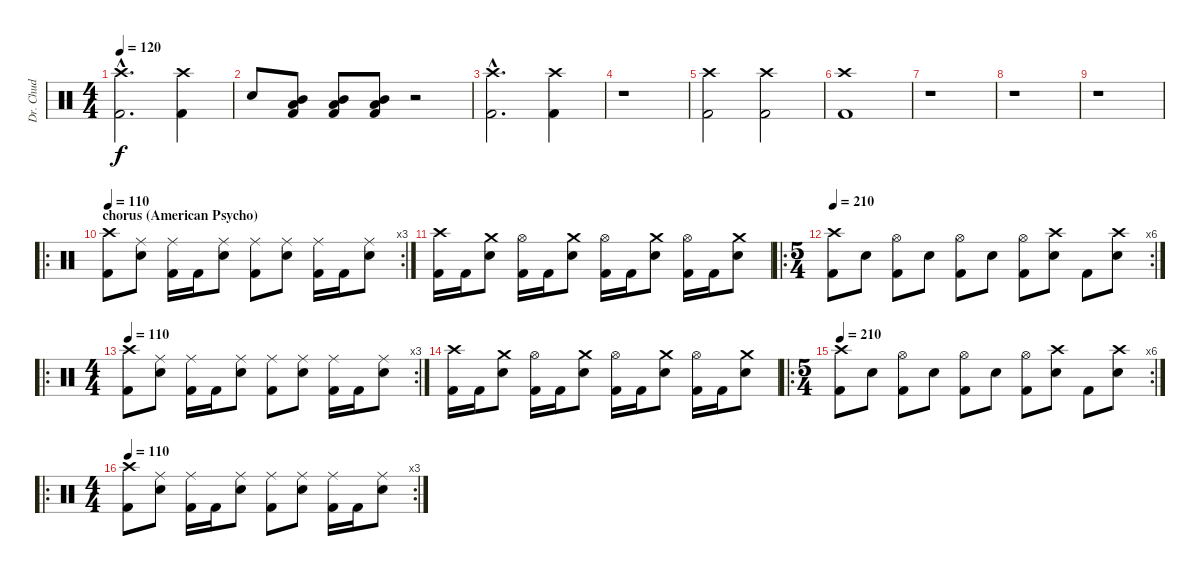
\track ("Dr. Chud" "Dr. Chud") {instrument percussion}
\staff {score}
\articulation defaults
\ts (4 4)
\tempo 120
\clef neutral
\ks c
("Crash high (hit)"{hac} "Kick (hit) 2"{hac}).2{d dy f} ("Crash high (hit)" "Kick (hit) 2").4 |
"Electric Snare (hit)".8 ("Mid Tom (hit)" "Low Tom (hit)" "Kick (hit) 2").8 ("Mid Tom (hit)" "Low Tom (hit)" "Kick (hit) 2").8 ("Mid Tom (hit)" "Low Tom (hit)" "Kick (hit) 2").8 r.2 |
("Crash high (hit)"{hac} "Kick (hit) 2"{hac}).2{d} ("Crash high (hit)" "Kick (hit) 2").4 |
r.1 |
("Crash high (hit)" "Kick (hit) 2").2 ("Crash high (hit)" "Kick (hit) 2").2 |
("Crash high (hit)" "Kick (hit) 2").1 |
r.1 |
r.1 |
r.1 |
\ro
\rc 3
\section ("" "chorus (American Psycho)")
\tempo 110
("Crash high (hit)" "Kick (hit) 2").8 ("Ride (middle)" "Electric Snare (hit)").8 ("Ride (middle)" "Kick (hit) 2").16 "Kick (hit) 2".16 ("Ride (middle)" "Electric Snare (hit)").8 ("Ride (middle)" "Kick (hit) 2").8 ("Ride (middle)" "Electric Snare (hit)").8 ("Ride (middle)" "Kick (hit) 2").16 "Kick (hit) 2".16 ("Ride (middle)" "Electric Snare (hit)").8 |
("Crash high (hit)" "Kick (hit) 2").16 "Kick (hit) 2".16 ("Crash medium (hit)" "Electric Snare (hit)").8 ("Hi-Hat (open)" "Kick (hit) 2").16 "Kick (hit) 2".16 ("Crash medium (hit)" "Electric Snare (hit)").8 ("Hi-Hat (open)" "Kick (hit) 2").16 "Kick (hit) 2".16 ("Crash medium (hit)" "Electric Snare (hit)").8 ("Hi-Hat (open)" "Kick (hit) 2").16 "Kick (hit) 2".16 ("Crash medium (hit)" "Electric Snare (hit)").8 |
\ro
\rc 6
\ts (5 4)
\tempo 210
("Crash high (hit)" "Kick (hit) 2").8 "Electric Snare (hit)".8 ("Hi-Hat (open)" "Kick (hit) 2").8 "Electric Snare (hit)".8 ("Hi-Hat (open)" "Kick (hit) 2").8 "Electric Snare (hit)".8 ("Hi-Hat (open)" "Kick (hit) 2").8 ("Crash high (hit)" "Electric Snare (hit)").8 "Kick (hit) 2".8 ("Crash high (hit)" "Electric Snare (hit)").8 |
\ro
\rc 3
\ts (4 4)
\tempo 110
("Crash high (hit)" "Kick (hit) 2").8 ("Ride (middle)" "Electric Snare (hit)").8 ("Ride (middle)" "Kick (hit) 2").16 "Kick (hit) 2".16 ("Ride (middle)" "Electric Snare (hit)").8 ("Ride (middle)" "Kick (hit) 2").8 ("Ride (middle)" "Electric Snare (hit)").8 ("Ride (middle)" "Kick (hit) 2").16 "Kick (hit) 2".16 ("Ride (middle)" "Electric Snare (hit)").8 |
("Crash high (hit)" "Kick (hit) 2").16 "Kick (hit) 2".16 ("Crash medium (hit)" "Electric Snare (hit)").8 ("Hi-Hat (open)" "Kick (hit) 2").16 "Kick (hit) 2".16 ("Crash medium (hit)" "Electric Snare (hit)").8 ("Hi-Hat (open)" "Kick (hit) 2").16 "Kick (hit) 2".16 ("Crash medium (hit)" "Electric Snare (hit)").8 ("Hi-Hat (open)" "Kick (hit) 2").16 "Kick (hit) 2".16 ("Crash medium (hit)" "Electric Snare (hit)").8 |
\ro
\rc 6
\ts (5 4)
\tempo 210
("Crash high (hit)" "Kick (hit) 2").8 "Electric Snare (hit)".8 ("Hi-Hat (open)" "Kick (hit) 2").8 "Electric Snare (hit)".8 ("Hi-Hat (open)" "Kick (hit) 2").8 "Electric Snare (hit)".8 ("Hi-Hat (open)" "Kick (hit) 2").8 ("Crash high (hit)" "Electric Snare (hit)").8 "Kick (hit) 2".8 ("Crash high (hit)" "Electric Snare (hit)").8 |
\ro
\rc 3
\ts (4 4)
\tempo 110
("Crash high (hit)" "Kick (hit) 2").8 ("Ride (middle)" "Electric Snare (hit)").8 ("Ride (middle)" "Kick (hit) 2").16 "Kick (hit) 2".16 ("Ride (middle)" "Electric Snare (hit)").8 ("Ride (middle)" "Kick (hit) 2").8 ("Ride (middle)" "Electric Snare (hit)").8 ("Ride (middle)" "Kick (hit) 2").16 "Kick (hit) 2".16 ("Ride (middle)" "Electric Snare (hit)").8
